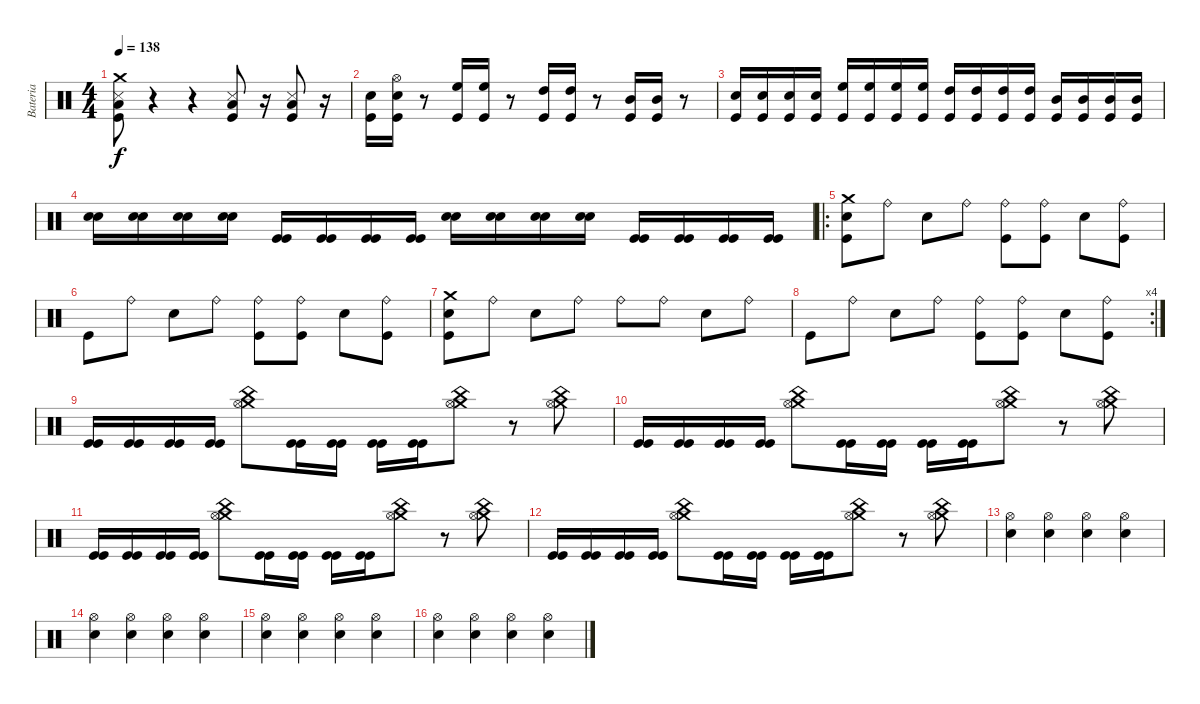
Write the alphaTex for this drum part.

\track ("Bateria" "Bateria") {instrument percussion}
\staff {score}
\articulation defaults
\ts (4 4)
\tempo 138
\clef neutral
\ks c
("Crash medium (hit)" "Snare (side stick) 3" "Low Floor Tom (hit)" "Kick (hit)").8{dy f} r.4 r.4 ("Snare (side stick) 3" "Low Floor Tom (hit)" "Kick (hit)").8 r.16 ("Snare (side stick) 3" "Low Floor Tom (hit)" "Kick (hit)").8 r.16 |
("Snare (hit) 2" "Kick (hit)").16 ("Hi-Hat (open)" "Snare (hit) 2" "Kick (hit)").16 r.8 ("High Floor Tom (hit)" "Kick (hit)").16 ("High Floor Tom (hit)" "Kick (hit)").16 r.8 ("High Tom (hit)" "Kick (hit)").16 ("High Tom (hit)" "Kick (hit)").16 r.8 ("Mid Tom (hit)" "Kick (hit)").16 ("Mid Tom (hit)" "Kick (hit)").16 r.8 |
("Snare (hit) 2" "Kick (hit)").16 ("Snare (hit) 2" "Kick (hit)").16 ("Snare (hit) 2" "Kick (hit)").16 ("Snare (hit) 2" "Kick (hit)").16 ("High Floor Tom (hit)" "Kick (hit)").16 ("High Floor Tom (hit)" "Kick (hit)").16 ("High Floor Tom (hit)" "Kick (hit)").16 ("High Floor Tom (hit)" "Kick (hit)").16 ("High Tom (hit)" "Kick (hit)").16 ("High Tom (hit)" "Kick (hit)").16 ("High Tom (hit)" "Kick (hit)").16 ("High Tom (hit)" "Kick (hit)").16 ("Mid Tom (hit)" "Kick (hit)").16 ("Mid Tom (hit)" "Kick (hit)").16 ("Mid Tom (hit)" "Kick (hit)").16 ("Mid Tom (hit)" "Kick (hit)").16 |
("Snare (hit) 2" "Snare (hit) 2").16 ("Snare (hit) 2" "Snare (hit) 2").16 ("Snare (hit) 2" "Snare (hit) 2").16 ("Snare (hit) 2" "Snare (hit) 2").16 ("Kick (hit)" "Kick (hit)").16 ("Kick (hit)" "Kick (hit)").16 ("Kick (hit)" "Kick (hit)").16 ("Kick (hit)" "Kick (hit)").16 ("Snare (hit) 2" "Snare (hit) 2").16 ("Snare (hit) 2" "Snare (hit) 2").16 ("Snare (hit) 2" "Snare (hit) 2").16 ("Snare (hit) 2" "Snare (hit) 2").16 ("Kick (hit)" "Kick (hit)").16 ("Kick (hit)" "Kick (hit)").16 ("Kick (hit)" "Kick (hit)").16 ("Kick (hit)" "Kick (hit)").16 |
\ro
("Crash medium (hit)" "Kick (hit)" "Snare (hit) 2").8 "Ride (bell)".8 "Snare (hit) 2".8 "Ride (bell)".8 ("Kick (hit)" "Ride (bell)").8 ("Kick (hit)" "Ride (bell)").8 "Snare (hit) 2".8 ("Kick (hit)" "Ride (bell)").8 |
"Kick (hit)".8 "Ride (bell)".8 "Snare (hit) 2".8 "Ride (bell)".8 ("Kick (hit)" "Ride (bell)").8 ("Kick (hit)" "Ride (bell)").8 "Snare (hit) 2".8 ("Kick (hit)" "Ride (bell)").8 |
("Crash medium (hit)" "Kick (hit)" "Snare (hit) 2").8 "Ride (bell)".8 "Snare (hit) 2".8 "Ride (bell)".8 "Ride (bell)".8 "Ride (bell)".8 "Snare (hit) 2".8 "Ride (bell)".8 |
\rc 4 "Kick (hit)".8 "Ride (bell)".8 "Snare (hit) 2".8 "Ride (bell)".8
("Kick (hit)" "Ride (bell)").8 ("Kick (hit)" "Ride (bell)").8 "Snare (hit) 2".8 ("Kick (hit)" "Ride (bell)").8 |
("Kick (hit)" "Kick (hit)").16 ("Kick (hit)" "Kick (hit)").16 ("Kick (hit)" "Kick (hit)").16 ("Kick (hit)" "Kick (hit)").16 ("China (hit)" "Crash medium (hit)" "Hi-Hat (open)").8 ("Kick (hit)" "Kick (hit)").16 ("Kick (hit)" "Kick (hit)").16 ("Kick (hit)" "Kick (hit)").16 ("Kick (hit)" "Kick (hit)").16 ("China (hit)" "Crash medium (hit)" "Hi-Hat (open)").8 r.8 ("China (hit)" "Crash medium (hit)" "Hi-Hat (open)").8 |
("Kick (hit)" "Kick (hit)").16 ("Kick (hit)" "Kick (hit)").16 ("Kick (hit)" "Kick (hit)").16 ("Kick (hit)" "Kick (hit)").16 ("China (hit)" "Crash medium (hit)" "Hi-Hat (open)").8 ("Kick (hit)" "Kick (hit)").16 ("Kick (hit)" "Kick (hit)").16 ("Kick (hit)" "Kick (hit)").16 ("Kick (hit)" "Kick (hit)").16 ("China (hit)" "Crash medium (hit)" "Hi-Hat (open)").8 r.8 ("China (hit)" "Crash medium (hit)" "Hi-Hat (open)").8 |
("Kick (hit)" "Kick (hit)").16 ("Kick (hit)" "Kick (hit)").16 ("Kick (hit)" "Kick (hit)").16 ("Kick (hit)" "Kick (hit)").16 ("China (hit)" "Crash medium (hit)" "Hi-Hat (open)").8 ("Kick (hit)" "Kick (hit)").16 ("Kick (hit)" "Kick (hit)").16 ("Kick (hit)" "Kick (hit)").16 ("Kick (hit)" "Kick (hit)").16 ("China (hit)" "Crash medium (hit)" "Hi-Hat (open)").8 r.8 ("China (hit)" "Crash medium (hit)" "Hi-Hat (open)").8 |
("Kick (hit)" "Kick (hit)").16 ("Kick (hit)" "Kick (hit)").16 ("Kick (hit)" "Kick (hit)").16 ("Kick (hit)" "Kick (hit)").16 ("China (hit)" "Crash medium (hit)" "Hi-Hat (open)").8 ("Kick (hit)" "Kick (hit)").16 ("Kick (hit)" "Kick (hit)").16 ("Kick (hit)" "Kick (hit)").16 ("Kick (hit)" "Kick (hit)").16 ("China (hit)" "Crash medium (hit)" "Hi-Hat (open)").8 r.8 ("China (hit)" "Crash medium (hit)" "Hi-Hat (open)").8 |
("Snare (hit) 2" "Hi-Hat (open)").4 ("Snare (hit) 2" "Hi-Hat (open)").4 ("Snare (hit) 2" "Hi-Hat (open)").4 ("Snare (hit) 2" "Hi-Hat (open)").4 |
("Snare (hit) 2" "Hi-Hat (open)").4 ("Snare (hit) 2" "Hi-Hat (open)").4 ("Snare (hit) 2" "Hi-Hat (open)").4 ("Snare (hit) 2" "Hi-Hat (open)").4 |
("Snare (hit) 2" "Hi-Hat (open)").4 ("Snare (hit) 2" "Hi-Hat (open)").4 ("Snare (hit) 2" "Hi-Hat (open)").4 ("Snare (hit) 2" "Hi-Hat (open)").4 |
("Snare (hit) 2" "Hi-Hat (open)").4 ("Snare (hit) 2" "Hi-Hat (open)").4 ("Snare (hit) 2" "Hi-Hat (open)").4 ("Snare (hit) 2" "Hi-Hat (open)").4
